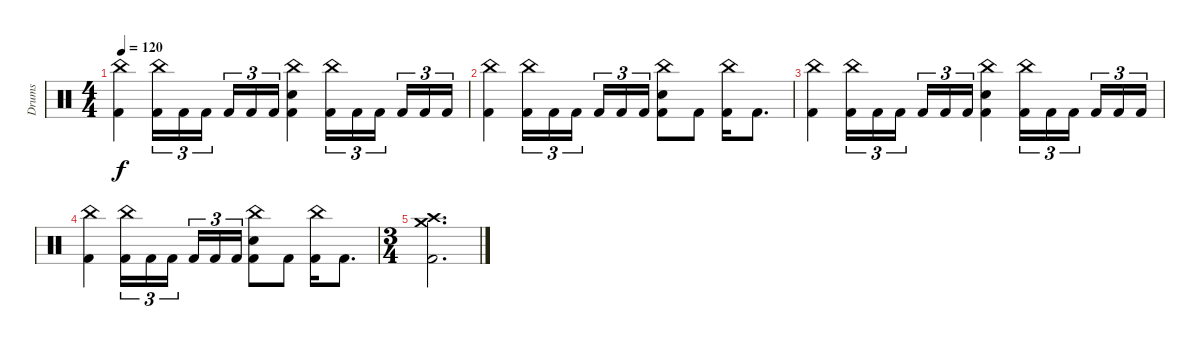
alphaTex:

\track ("Drums" "Drums") {instrument percussion}
\staff {score}
\articulation defaults
\ts (4 4)
\tempo 120
\clef neutral
\ks c
("China (hit)" "Kick (hit) 2").4{dy f} ("China (hit)" "Kick (hit) 2").16{tu (3 2)} "Kick (hit) 2".16{tu (3 2)} "Kick (hit) 2".16{tu (3 2) beam splitsecondary} "Kick (hit) 2".16{tu (3 2)} "Kick (hit) 2".16{tu (3 2)} "Kick (hit) 2".16{tu (3 2)} ("China (hit)" "Electric Snare (hit)" "Kick (hit) 2").4 ("China (hit)" "Kick (hit) 2").16{tu (3 2)} "Kick (hit) 2".16{tu (3 2)} "Kick (hit) 2".16{tu (3 2) beam splitsecondary} "Kick (hit) 2".16{tu (3 2)} "Kick (hit) 2".16{tu (3 2)} "Kick (hit) 2".16{tu (3 2)} |
("China (hit)" "Kick (hit) 2").4 ("China (hit)" "Kick (hit) 2").16{tu (3 2)} "Kick (hit) 2".16{tu (3 2)} "Kick (hit) 2".16{tu (3 2) beam splitsecondary} "Kick (hit) 2".16{tu (3 2)} "Kick (hit) 2".16{tu (3 2)} "Kick (hit) 2".16{tu (3 2)} ("China (hit)" "Electric Snare (hit)" "Kick (hit) 2").8 "Kick (hit) 2".8 ("China (hit)" "Kick (hit) 2").16 "Kick (hit) 2".8{d} |
("China (hit)" "Kick (hit) 2").4 ("China (hit)" "Kick (hit) 2").16{tu (3 2)} "Kick (hit) 2".16{tu (3 2)} "Kick (hit) 2".16{tu (3 2) beam splitsecondary} "Kick (hit) 2".16{tu (3 2)} "Kick (hit) 2".16{tu (3 2)} "Kick (hit) 2".16{tu (3 2)} ("China (hit)" "Electric Snare (hit)" "Kick (hit) 2").4 ("China (hit)" "Kick (hit) 2").16{tu (3 2)} "Kick (hit) 2".16{tu (3 2)} "Kick (hit) 2".16{tu (3 2) beam splitsecondary} "Kick (hit) 2".16{tu (3 2)} "Kick (hit) 2".16{tu (3 2)} "Kick (hit) 2".16{tu (3 2)} |
("China (hit)" "Kick (hit) 2").4 ("China (hit)" "Kick (hit) 2").16{tu (3 2)} "Kick (hit) 2".16{tu (3 2)} "Kick (hit) 2".16{tu (3 2) beam splitsecondary} "Kick (hit) 2".16{tu (3 2)} "Kick (hit) 2".16{tu (3 2)} "Kick (hit) 2".16{tu (3 2)} ("China (hit)" "Electric Snare (hit)" "Kick (hit) 2").8 "Kick (hit) 2".8 ("China (hit)" "Kick (hit) 2").16 "Kick (hit) 2".8{d} |
\ts (3 4)
("Crash high (hit)" "Crash medium (hit)" "Kick (hit) 2").2{d}
